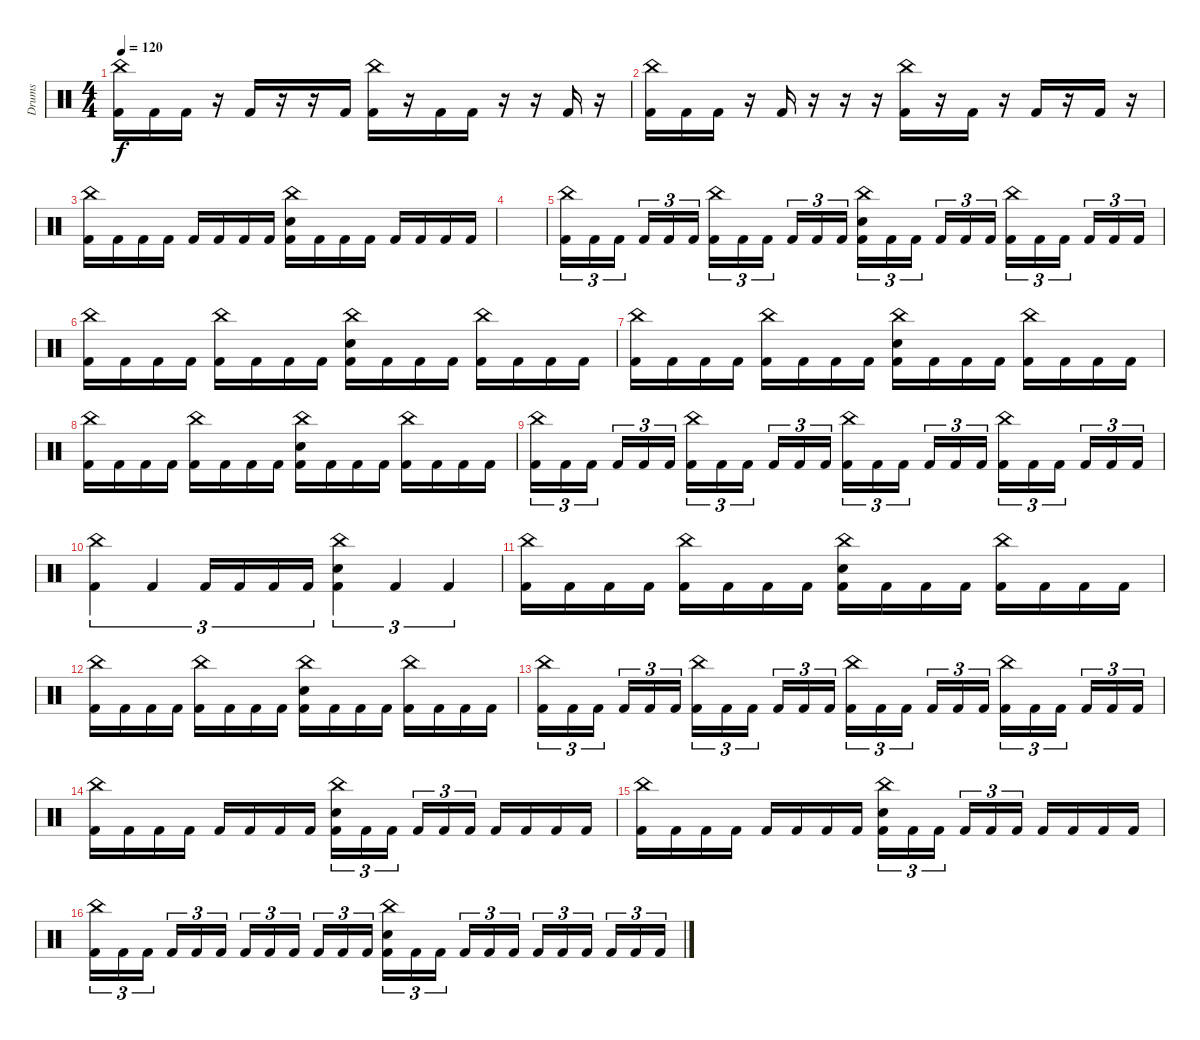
\track ("Drums" "Drums") {instrument percussion}
\staff {score}
\articulation defaults
\ts (4 4)
\tempo 120
\clef neutral
\ks c
("China (hit)" "Kick (hit) 2").16{dy f} "Kick (hit) 2".16 "Kick (hit) 2".16 r.16 "Kick (hit) 2".16 r.16 r.16 "Kick (hit) 2".16 ("China (hit)" "Kick (hit) 2").16 r.16 "Kick (hit) 2".16 "Kick (hit) 2".16 r.16 r.16 "Kick (hit) 2".16 r.16 |
("China (hit)" "Kick (hit) 2").16 "Kick (hit) 2".16 "Kick (hit) 2".16 r.16 "Kick (hit) 2".16 r.16 r.16 r.16 ("China (hit)" "Kick (hit) 2").16 r.16 "Kick (hit) 2".16 r.16 "Kick (hit) 2".16 r.16 "Kick (hit) 2".16 r.16 |
("China (hit)" "Kick (hit) 2").16 "Kick (hit) 2".16 "Kick (hit) 2".16 "Kick (hit) 2".16 "Kick (hit) 2".16 "Kick (hit) 2".16 "Kick (hit) 2".16 "Kick (hit) 2".16 ("China (hit)" "Snare (hit) 2" "Kick (hit) 2").16 "Kick (hit) 2".16 "Kick (hit) 2".16 "Kick (hit) 2".16 "Kick (hit) 2".16 "Kick (hit) 2".16 "Kick (hit) 2".16 "Kick (hit) 2".16 |
|
("China (hit)" "Kick (hit) 2").16{tu (3 2)} "Kick (hit) 2".16{tu (3 2)} "Kick (hit) 2".16{tu (3 2) beam splitsecondary} "Kick (hit) 2".16{tu (3 2)} "Kick (hit) 2".16{tu (3 2)} "Kick (hit) 2".16{tu (3 2)} ("China (hit)" "Kick (hit) 2").16{tu (3 2)} "Kick (hit) 2".16{tu (3 2)} "Kick (hit) 2".16{tu (3 2) beam splitsecondary} "Kick (hit) 2".16{tu (3 2)} "Kick (hit) 2".16{tu (3 2)} "Kick (hit) 2".16{tu (3 2)} ("China (hit)" "Snare (hit) 2" "Kick (hit) 2").16{tu (3 2)} "Kick (hit) 2".16{tu (3 2)} "Kick (hit) 2".16{tu (3 2) beam splitsecondary} "Kick (hit) 2".16{tu (3 2)} "Kick (hit) 2".16{tu (3 2)} "Kick (hit) 2".16{tu (3 2)} ("China (hit)" "Kick (hit) 2").16{tu (3 2)} "Kick (hit) 2".16{tu (3 2)} "Kick (hit) 2".16{tu (3 2) beam splitsecondary} "Kick (hit) 2".16{tu (3 2)} "Kick (hit) 2".16{tu (3 2)} "Kick (hit) 2".16{tu (3 2)} |
("China (hit)" "Kick (hit) 2").16 "Kick (hit) 2".16 "Kick (hit) 2".16 "Kick (hit) 2".16 ("China (hit)" "Kick (hit) 2").16 "Kick (hit) 2".16 "Kick (hit) 2".16 "Kick (hit) 2".16 ("China (hit)" "Snare (hit) 2" "Kick (hit) 2").16 "Kick (hit) 2".16 "Kick (hit) 2".16 "Kick (hit) 2".16 ("China (hit)" "Kick (hit) 2").16 "Kick (hit) 2".16 "Kick (hit) 2".16 "Kick (hit) 2".16 |
("China (hit)" "Kick (hit) 2").16 "Kick (hit) 2".16 "Kick (hit) 2".16 "Kick (hit) 2".16 ("China (hit)" "Kick (hit) 2").16 "Kick (hit) 2".16 "Kick (hit) 2".16 "Kick (hit) 2".16 ("China (hit)" "Snare (hit) 2" "Kick (hit) 2").16 "Kick (hit) 2".16 "Kick (hit) 2".16 "Kick (hit) 2".16 ("China (hit)" "Kick (hit) 2").16 "Kick (hit) 2".16 "Kick (hit) 2".16 "Kick (hit) 2".16 |
("China (hit)" "Kick (hit) 2").16 "Kick (hit) 2".16 "Kick (hit) 2".16 "Kick (hit) 2".16 ("China (hit)" "Kick (hit) 2").16 "Kick (hit) 2".16 "Kick (hit) 2".16 "Kick (hit) 2".16 ("China (hit)" "Snare (hit) 2" "Kick (hit) 2").16 "Kick (hit) 2".16 "Kick (hit) 2".16 "Kick (hit) 2".16 ("China (hit)" "Kick (hit) 2").16 "Kick (hit) 2".16 "Kick (hit) 2".16 "Kick (hit) 2".16 |
("China (hit)" "Kick (hit) 2").16{tu (3 2)} "Kick (hit) 2".16{tu (3 2)} "Kick (hit) 2".16{tu (3 2) beam splitsecondary} "Kick (hit) 2".16{tu (3 2)} "Kick (hit) 2".16{tu (3 2)} "Kick (hit) 2".16{tu (3 2)} ("China (hit)" "Kick (hit) 2").16{tu (3 2)} "Kick (hit) 2".16{tu (3 2)} "Kick (hit) 2".16{tu (3 2) beam splitsecondary} "Kick (hit) 2".16{tu (3 2)} "Kick (hit) 2".16{tu (3 2)} "Kick (hit) 2".16{tu (3 2)} ("China (hit)" "Kick (hit) 2").16{tu (3 2)} "Kick (hit) 2".16{tu (3 2)} "Kick (hit) 2".16{tu (3 2) beam splitsecondary} "Kick (hit) 2".16{tu (3 2)} "Kick (hit) 2".16{tu (3 2)} "Kick (hit) 2".16{tu (3 2)} ("China (hit)" "Kick (hit) 2").16{tu (3 2)} "Kick (hit) 2".16{tu (3 2)} "Kick (hit) 2".16{tu (3 2) beam splitsecondary} "Kick (hit) 2".16{tu (3 2)} "Kick (hit) 2".16{tu (3 2)} "Kick (hit) 2".16{tu (3 2)} |
("China (hit)" "Kick (hit) 2").4{tu (3 2)} "Kick (hit) 2".4{tu (3 2)} "Kick (hit) 2".16{tu (3 2)} "Kick (hit) 2".16{tu (3 2)} "Kick (hit) 2".16{tu (3 2)} "Kick (hit) 2".16{tu (3 2)} ("China (hit)" "Snare (hit) 2" "Kick (hit) 2").4{tu (3 2)} "Kick (hit) 2".4{tu (3 2)} "Kick (hit) 2".4{tu (3 2)} |
("China (hit)" "Kick (hit) 2").16 "Kick (hit) 2".16 "Kick (hit) 2".16 "Kick (hit) 2".16 ("China (hit)" "Kick (hit) 2").16 "Kick (hit) 2".16 "Kick (hit) 2".16 "Kick (hit) 2".16 ("China (hit)" "Snare (hit) 2" "Kick (hit) 2").16 "Kick (hit) 2".16 "Kick (hit) 2".16 "Kick (hit) 2".16 ("China (hit)" "Kick (hit) 2").16 "Kick (hit) 2".16 "Kick (hit) 2".16 "Kick (hit) 2".16 |
("China (hit)" "Kick (hit) 2").16 "Kick (hit) 2".16 "Kick (hit) 2".16 "Kick (hit) 2".16 ("China (hit)" "Kick (hit) 2").16 "Kick (hit) 2".16 "Kick (hit) 2".16 "Kick (hit) 2".16 ("China (hit)" "Snare (hit) 2" "Kick (hit) 2").16 "Kick (hit) 2".16 "Kick (hit) 2".16 "Kick (hit) 2".16 ("China (hit)" "Kick (hit) 2").16 "Kick (hit) 2".16 "Kick (hit) 2".16 "Kick (hit) 2".16 |
("China (hit)" "Kick (hit) 2").16{tu (3 2)} "Kick (hit) 2".16{tu (3 2)} "Kick (hit) 2".16{tu (3 2) beam splitsecondary} "Kick (hit) 2".16{tu (3 2)} "Kick (hit) 2".16{tu (3 2)} "Kick (hit) 2".16{tu (3 2)} ("China (hit)" "Kick (hit) 2").16{tu (3 2)} "Kick (hit) 2".16{tu (3 2)} "Kick (hit) 2".16{tu (3 2) beam splitsecondary} "Kick (hit) 2".16{tu (3 2)} "Kick (hit) 2".16{tu (3 2)} "Kick (hit) 2".16{tu (3 2)} ("China (hit)" "Kick (hit) 2").16{tu (3 2)} "Kick (hit) 2".16{tu (3 2)} "Kick (hit) 2".16{tu (3 2) beam splitsecondary} "Kick (hit) 2".16{tu (3 2)} "Kick (hit) 2".16{tu (3 2)} "Kick (hit) 2".16{tu (3 2)} ("China (hit)" "Kick (hit) 2").16{tu (3 2)} "Kick (hit) 2".16{tu (3 2)} "Kick (hit) 2".16{tu (3 2) beam splitsecondary} "Kick (hit) 2".16{tu (3 2)} "Kick (hit) 2".16{tu (3 2)} "Kick (hit) 2".16{tu (3 2)} |
("China (hit)" "Kick (hit) 2").16 "Kick (hit) 2".16 "Kick (hit) 2".16 "Kick (hit) 2".16 "Kick (hit) 2".16 "Kick (hit) 2".16 "Kick (hit) 2".16 "Kick (hit) 2".16 ("China (hit)" "Snare (hit) 2" "Kick (hit) 2").16{tu (3 2)} "Kick (hit) 2".16{tu (3 2)} "Kick (hit) 2".16{tu (3 2) beam splitsecondary} "Kick (hit) 2".16{tu (3 2)} "Kick (hit) 2".16{tu (3 2)} "Kick (hit) 2".16{tu (3 2)} "Kick (hit) 2".16 "Kick (hit) 2".16 "Kick (hit) 2".16 "Kick (hit) 2".16 |
("China (hit)" "Kick (hit) 2").16 "Kick (hit) 2".16 "Kick (hit) 2".16 "Kick (hit) 2".16 "Kick (hit) 2".16 "Kick (hit) 2".16 "Kick (hit) 2".16 "Kick (hit) 2".16 ("China (hit)" "Snare (hit) 2" "Kick (hit) 2").16{tu (3 2)} "Kick (hit) 2".16{tu (3 2)} "Kick (hit) 2".16{tu (3 2) beam splitsecondary} "Kick (hit) 2".16{tu (3 2)} "Kick (hit) 2".16{tu (3 2)} "Kick (hit) 2".16{tu (3 2)} "Kick (hit) 2".16 "Kick (hit) 2".16 "Kick (hit) 2".16 "Kick (hit) 2".16 |
("China (hit)" "Kick (hit) 2").16{tu (3 2)} "Kick (hit) 2".16{tu (3 2)} "Kick (hit) 2".16{tu (3 2) beam splitsecondary} "Kick (hit) 2".16{tu (3 2)} "Kick (hit) 2".16{tu (3 2)} "Kick (hit) 2".16{tu (3 2)} "Kick (hit) 2".16{tu (3 2)} "Kick (hit) 2".16{tu (3 2)} "Kick (hit) 2".16{tu (3 2) beam splitsecondary} "Kick (hit) 2".16{tu (3 2)} "Kick (hit) 2".16{tu (3 2)} "Kick (hit) 2".16{tu (3 2)} ("China (hit)" "Snare (hit) 2" "Kick (hit) 2").16{tu (3 2)} "Kick (hit) 2".16{tu (3 2)} "Kick (hit) 2".16{tu (3 2) beam splitsecondary} "Kick (hit) 2".16{tu (3 2)} "Kick (hit) 2".16{tu (3 2)} "Kick (hit) 2".16{tu (3 2)} "Kick (hit) 2".16{tu (3 2)} "Kick (hit) 2".16{tu (3 2)} "Kick (hit) 2".16{tu (3 2) beam splitsecondary} "Kick (hit) 2".16{tu (3 2)} "Kick (hit) 2".16{tu (3 2)} "Kick (hit) 2".16{tu (3 2)}
